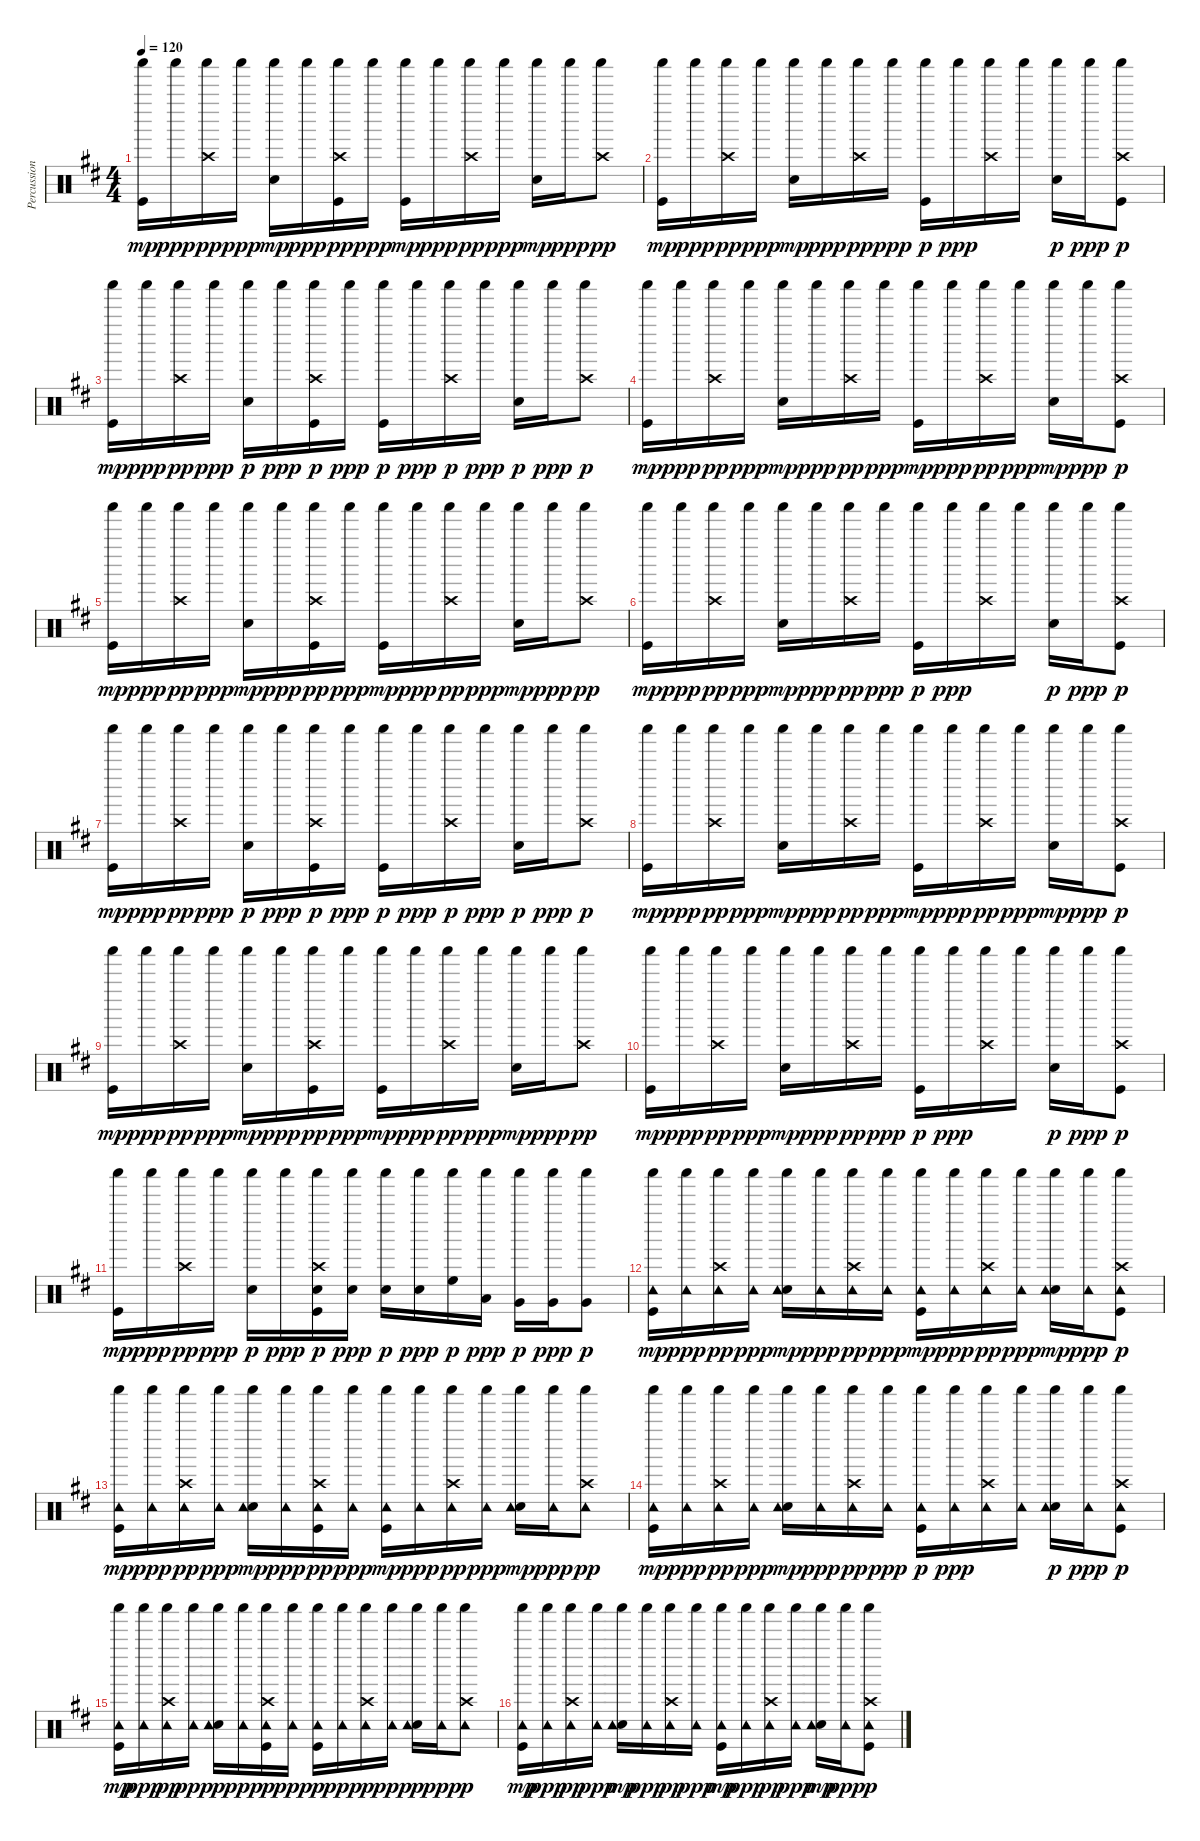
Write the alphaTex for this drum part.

\track ("Percussion" "Percussion") {instrument percussion}
\staff {score}
\articulation defaults
\ts (4 4)
\tempo 120
\clef neutral
\ks d
("Kick (hit)" "Shaker (hit)").16{dy mp} "Shaker (hit)".16{dy ppp} ("Crash high (hit)" "Shaker (hit)").16{dy pp} "Shaker (hit)".16{dy ppp} ("Electric Snare (hit)" "Shaker (hit)").16{dy mp} "Shaker (hit)".16{dy ppp} ("Kick (hit)" "Crash high (hit)" "Shaker (hit)").16{dy pp} "Shaker (hit)".16{dy ppp} ("Kick (hit)" "Shaker (hit)").16{dy mp} "Shaker (hit)".16{dy ppp} ("Crash high (hit)" "Shaker (hit)").16{dy pp} "Shaker (hit)".16{dy ppp} ("Electric Snare (hit)" "Shaker (hit)").16{dy mp} "Shaker (hit)".16{dy ppp} ("Crash high (hit)" "Shaker (hit)").8{dy pp} |
("Kick (hit)" "Shaker (hit)").16{dy mp} "Shaker (hit)".16{dy ppp} ("Crash high (hit)" "Shaker (hit)").16{dy pp} "Shaker (hit)".16{dy ppp} ("Electric Snare (hit)" "Shaker (hit)").16{dy mp} "Shaker (hit)".16{dy ppp} ("Crash high (hit)" "Shaker (hit)").16{dy pp} "Shaker (hit)".16{dy ppp} ("Kick (hit)" "Shaker (hit)").16{dy p} "Shaker (hit)".16{dy ppp} ("Crash high (hit)" "Shaker (hit)").16 "Shaker (hit)".16 ("Electric Snare (hit)" "Shaker (hit)").16{dy p} "Shaker (hit)".16{dy ppp} ("Kick (hit)" "Crash high (hit)" "Shaker (hit)").8{dy p} |
("Kick (hit)" "Shaker (hit)").16{dy mp} "Shaker (hit)".16{dy ppp} ("Crash high (hit)" "Shaker (hit)").16{dy pp} "Shaker (hit)".16{dy ppp} ("Electric Snare (hit)" "Shaker (hit)").16{dy p} "Shaker (hit)".16{dy ppp} ("Kick (hit)" "Crash high (hit)" "Shaker (hit)").16{dy p} "Shaker (hit)".16{dy ppp} ("Kick (hit)" "Shaker (hit)").16{dy p} "Shaker (hit)".16{dy ppp} ("Crash high (hit)" "Shaker (hit)").16{dy p} "Shaker (hit)".16{dy ppp} ("Electric Snare (hit)" "Shaker (hit)").16{dy p} "Shaker (hit)".16{dy ppp} ("Crash high (hit)" "Shaker (hit)").8{dy p} |
("Kick (hit)" "Shaker (hit)").16{dy mp} "Shaker (hit)".16{dy ppp} ("Crash high (hit)" "Shaker (hit)").16{dy pp} "Shaker (hit)".16{dy ppp} ("Electric Snare (hit)" "Shaker (hit)").16{dy mp} "Shaker (hit)".16{dy ppp} ("Crash high (hit)" "Shaker (hit)").16{dy pp} "Shaker (hit)".16{dy ppp} ("Kick (hit)" "Shaker (hit)").16{dy mp} "Shaker (hit)".16{dy ppp} ("Crash high (hit)" "Shaker (hit)").16{dy pp} "Shaker (hit)".16{dy ppp} ("Electric Snare (hit)" "Shaker (hit)").16{dy mp} "Shaker (hit)".16{dy ppp} ("Kick (hit)" "Crash high (hit)" "Shaker (hit)").8{dy p} |
("Kick (hit)" "Shaker (hit)").16{dy mp} "Shaker (hit)".16{dy ppp} ("Crash high (hit)" "Shaker (hit)").16{dy pp} "Shaker (hit)".16{dy ppp} ("Electric Snare (hit)" "Shaker (hit)").16{dy mp} "Shaker (hit)".16{dy ppp} ("Kick (hit)" "Crash high (hit)" "Shaker (hit)").16{dy pp} "Shaker (hit)".16{dy ppp} ("Kick (hit)" "Shaker (hit)").16{dy mp} "Shaker (hit)".16{dy ppp} ("Crash high (hit)" "Shaker (hit)").16{dy pp} "Shaker (hit)".16{dy ppp} ("Electric Snare (hit)" "Shaker (hit)").16{dy mp} "Shaker (hit)".16{dy ppp} ("Crash high (hit)" "Shaker (hit)").8{dy pp} |
("Kick (hit)" "Shaker (hit)").16{dy mp} "Shaker (hit)".16{dy ppp} ("Crash high (hit)" "Shaker (hit)").16{dy pp} "Shaker (hit)".16{dy ppp} ("Electric Snare (hit)" "Shaker (hit)").16{dy mp} "Shaker (hit)".16{dy ppp} ("Crash high (hit)" "Shaker (hit)").16{dy pp} "Shaker (hit)".16{dy ppp} ("Kick (hit)" "Shaker (hit)").16{dy p} "Shaker (hit)".16{dy ppp} ("Crash high (hit)" "Shaker (hit)").16 "Shaker (hit)".16 ("Electric Snare (hit)" "Shaker (hit)").16{dy p} "Shaker (hit)".16{dy ppp} ("Kick (hit)" "Crash high (hit)" "Shaker (hit)").8{dy p} |
("Kick (hit)" "Shaker (hit)").16{dy mp} "Shaker (hit)".16{dy ppp} ("Crash high (hit)" "Shaker (hit)").16{dy pp} "Shaker (hit)".16{dy ppp} ("Electric Snare (hit)" "Shaker (hit)").16{dy p} "Shaker (hit)".16{dy ppp} ("Kick (hit)" "Crash high (hit)" "Shaker (hit)").16{dy p} "Shaker (hit)".16{dy ppp} ("Kick (hit)" "Shaker (hit)").16{dy p} "Shaker (hit)".16{dy ppp} ("Crash high (hit)" "Shaker (hit)").16{dy p} "Shaker (hit)".16{dy ppp} ("Electric Snare (hit)" "Shaker (hit)").16{dy p} "Shaker (hit)".16{dy ppp} ("Crash high (hit)" "Shaker (hit)").8{dy p} |
("Kick (hit)" "Shaker (hit)").16{dy mp} "Shaker (hit)".16{dy ppp} ("Crash high (hit)" "Shaker (hit)").16{dy pp} "Shaker (hit)".16{dy ppp} ("Electric Snare (hit)" "Shaker (hit)").16{dy mp} "Shaker (hit)".16{dy ppp} ("Crash high (hit)" "Shaker (hit)").16{dy pp} "Shaker (hit)".16{dy ppp} ("Kick (hit)" "Shaker (hit)").16{dy mp} "Shaker (hit)".16{dy ppp} ("Crash high (hit)" "Shaker (hit)").16{dy pp} "Shaker (hit)".16{dy ppp} ("Electric Snare (hit)" "Shaker (hit)").16{dy mp} "Shaker (hit)".16{dy ppp} ("Kick (hit)" "Crash high (hit)" "Shaker (hit)").8{dy p} |
("Kick (hit)" "Shaker (hit)").16{dy mp} "Shaker (hit)".16{dy ppp} ("Crash high (hit)" "Shaker (hit)").16{dy pp} "Shaker (hit)".16{dy ppp} ("Electric Snare (hit)" "Shaker (hit)").16{dy mp} "Shaker (hit)".16{dy ppp} ("Kick (hit)" "Crash high (hit)" "Shaker (hit)").16{dy pp} "Shaker (hit)".16{dy ppp} ("Kick (hit)" "Shaker (hit)").16{dy mp} "Shaker (hit)".16{dy ppp} ("Crash high (hit)" "Shaker (hit)").16{dy pp} "Shaker (hit)".16{dy ppp} ("Electric Snare (hit)" "Shaker (hit)").16{dy mp} "Shaker (hit)".16{dy ppp} ("Crash high (hit)" "Shaker (hit)").8{dy pp} |
("Kick (hit)" "Shaker (hit)").16{dy mp} "Shaker (hit)".16{dy ppp} ("Crash high (hit)" "Shaker (hit)").16{dy pp} "Shaker (hit)".16{dy ppp} ("Electric Snare (hit)" "Shaker (hit)").16{dy mp} "Shaker (hit)".16{dy ppp} ("Crash high (hit)" "Shaker (hit)").16{dy pp} "Shaker (hit)".16{dy ppp} ("Kick (hit)" "Shaker (hit)").16{dy p} "Shaker (hit)".16{dy ppp} ("Crash high (hit)" "Shaker (hit)").16 "Shaker (hit)".16 ("Electric Snare (hit)" "Shaker (hit)").16{dy p} "Shaker (hit)".16{dy ppp} ("Kick (hit)" "Crash high (hit)" "Shaker (hit)").8{dy p} |
("Kick (hit)" "Shaker (hit)").16{dy mp} "Shaker (hit)".16{dy ppp} ("Crash high (hit)" "Shaker (hit)").16{dy pp} "Shaker (hit)".16{dy ppp} ("Electric Snare (hit)" "Shaker (hit)").16{dy p} "Shaker (hit)".16{dy ppp} ("Kick (hit)" "Electric Snare (hit)" "Crash high (hit)" "Shaker (hit)").16{dy p} ("Electric Snare (hit)" "Shaker (hit)").16{dy ppp} ("Electric Snare (hit)" "Shaker (hit)").16{dy p} ("Electric Snare (hit)" "Shaker (hit)").16{dy ppp} ("High Floor Tom (hit)" "Shaker (hit)").16{dy p} ("Low Tom (hit)" "Shaker (hit)").16{dy ppp} ("Very Low Tom (hit)" "Shaker (hit)").16{dy p} ("Very Low Tom (hit)" "Shaker (hit)").16{dy ppp} ("Very Low Tom (hit)" "Shaker (hit)").8{dy p} |
("Kick (hit)" "Tambourine (hit)" "Shaker (hit)").16{dy mp} ("Tambourine (hit)" "Shaker (hit)").16{dy ppp} ("Crash high (hit)" "Tambourine (hit)" "Shaker (hit)").16{dy pp} ("Tambourine (hit)" "Shaker (hit)").16{dy ppp} ("Electric Snare (hit)" "Tambourine (hit)" "Shaker (hit)").16{dy mp} ("Tambourine (hit)" "Shaker (hit)").16{dy ppp} ("Crash high (hit)" "Tambourine (hit)" "Shaker (hit)").16{dy pp} ("Tambourine (hit)" "Shaker (hit)").16{dy ppp} ("Kick (hit)" "Tambourine (hit)" "Shaker (hit)").16{dy mp} ("Tambourine (hit)" "Shaker (hit)").16{dy ppp} ("Crash high (hit)" "Tambourine (hit)" "Shaker (hit)").16{dy pp} ("Tambourine (hit)" "Shaker (hit)").16{dy ppp} ("Electric Snare (hit)" "Tambourine (hit)" "Shaker (hit)").16{dy mp} ("Tambourine (hit)" "Shaker (hit)").16{dy ppp} ("Kick (hit)" "Crash high (hit)" "Tambourine (hit)" "Shaker (hit)").8{dy p} |
("Kick (hit)" "Tambourine (hit)" "Shaker (hit)").16{dy mp} ("Tambourine (hit)" "Shaker (hit)").16{dy ppp} ("Crash high (hit)" "Tambourine (hit)" "Shaker (hit)").16{dy pp} ("Tambourine (hit)" "Shaker (hit)").16{dy ppp} ("Electric Snare (hit)" "Tambourine (hit)" "Shaker (hit)").16{dy mp} ("Tambourine (hit)" "Shaker (hit)").16{dy ppp} ("Kick (hit)" "Crash high (hit)" "Tambourine (hit)" "Shaker (hit)").16{dy pp} ("Tambourine (hit)" "Shaker (hit)").16{dy ppp} ("Kick (hit)" "Tambourine (hit)" "Shaker (hit)").16{dy mp} ("Tambourine (hit)" "Shaker (hit)").16{dy ppp} ("Crash high (hit)" "Tambourine (hit)" "Shaker (hit)").16{dy pp} ("Tambourine (hit)" "Shaker (hit)").16{dy ppp} ("Electric Snare (hit)" "Tambourine (hit)" "Shaker (hit)").16{dy mp} ("Tambourine (hit)" "Shaker (hit)").16{dy ppp} ("Crash high (hit)" "Tambourine (hit)" "Shaker (hit)").8{dy pp} |
("Kick (hit)" "Tambourine (hit)" "Shaker (hit)").16{dy mp} ("Tambourine (hit)" "Shaker (hit)").16{dy ppp} ("Crash high (hit)" "Tambourine (hit)" "Shaker (hit)").16{dy pp} ("Tambourine (hit)" "Shaker (hit)").16{dy ppp} ("Electric Snare (hit)" "Tambourine (hit)" "Shaker (hit)").16{dy mp} ("Tambourine (hit)" "Shaker (hit)").16{dy ppp} ("Crash high (hit)" "Tambourine (hit)" "Shaker (hit)").16{dy pp} ("Tambourine (hit)" "Shaker (hit)").16{dy ppp} ("Kick (hit)" "Tambourine (hit)" "Shaker (hit)").16{dy p} ("Tambourine (hit)" "Shaker (hit)").16{dy ppp} ("Crash high (hit)" "Tambourine (hit)" "Shaker (hit)").16 ("Tambourine (hit)" "Shaker (hit)").16 ("Electric Snare (hit)" "Tambourine (hit)" "Shaker (hit)").16{dy p} ("Tambourine (hit)" "Shaker (hit)").16{dy ppp} ("Kick (hit)" "Crash high (hit)" "Tambourine (hit)" "Shaker (hit)").8{dy p} |
("Kick (hit)" "Tambourine (hit)" "Shaker (hit)").16{dy mp} ("Tambourine (hit)" "Shaker (hit)").16{dy ppp} ("Crash high (hit)" "Tambourine (hit)" "Shaker (hit)").16{dy pp} ("Tambourine (hit)" "Shaker (hit)").16{dy ppp} ("Electric Snare (hit)" "Tambourine (hit)" "Shaker (hit)").16{dy p} ("Tambourine (hit)" "Shaker (hit)").16{dy ppp} ("Kick (hit)" "Crash high (hit)" "Tambourine (hit)" "Shaker (hit)").16{dy p} ("Tambourine (hit)" "Shaker (hit)").16{dy ppp} ("Kick (hit)" "Tambourine (hit)" "Shaker (hit)").16{dy p} ("Tambourine (hit)" "Shaker (hit)").16{dy ppp} ("Crash high (hit)" "Tambourine (hit)" "Shaker (hit)").16{dy p} ("Tambourine (hit)" "Shaker (hit)").16{dy ppp} ("Electric Snare (hit)" "Tambourine (hit)" "Shaker (hit)").16{dy p} ("Tambourine (hit)" "Shaker (hit)").16{dy ppp} ("Crash high (hit)" "Tambourine (hit)" "Shaker (hit)").8{dy p} |
("Kick (hit)" "Tambourine (hit)" "Shaker (hit)").16{dy mp} ("Tambourine (hit)" "Shaker (hit)").16{dy ppp} ("Crash high (hit)" "Tambourine (hit)" "Shaker (hit)").16{dy pp} ("Tambourine (hit)" "Shaker (hit)").16{dy ppp} ("Electric Snare (hit)" "Tambourine (hit)" "Shaker (hit)").16{dy mp} ("Tambourine (hit)" "Shaker (hit)").16{dy ppp} ("Crash high (hit)" "Tambourine (hit)" "Shaker (hit)").16{dy pp} ("Tambourine (hit)" "Shaker (hit)").16{dy ppp} ("Kick (hit)" "Tambourine (hit)" "Shaker (hit)").16{dy mp} ("Tambourine (hit)" "Shaker (hit)").16{dy ppp} ("Crash high (hit)" "Tambourine (hit)" "Shaker (hit)").16{dy pp} ("Tambourine (hit)" "Shaker (hit)").16{dy ppp} ("Electric Snare (hit)" "Tambourine (hit)" "Shaker (hit)").16{dy mp} ("Tambourine (hit)" "Shaker (hit)").16{dy ppp} ("Kick (hit)" "Crash high (hit)" "Tambourine (hit)" "Shaker (hit)").8{dy p}
